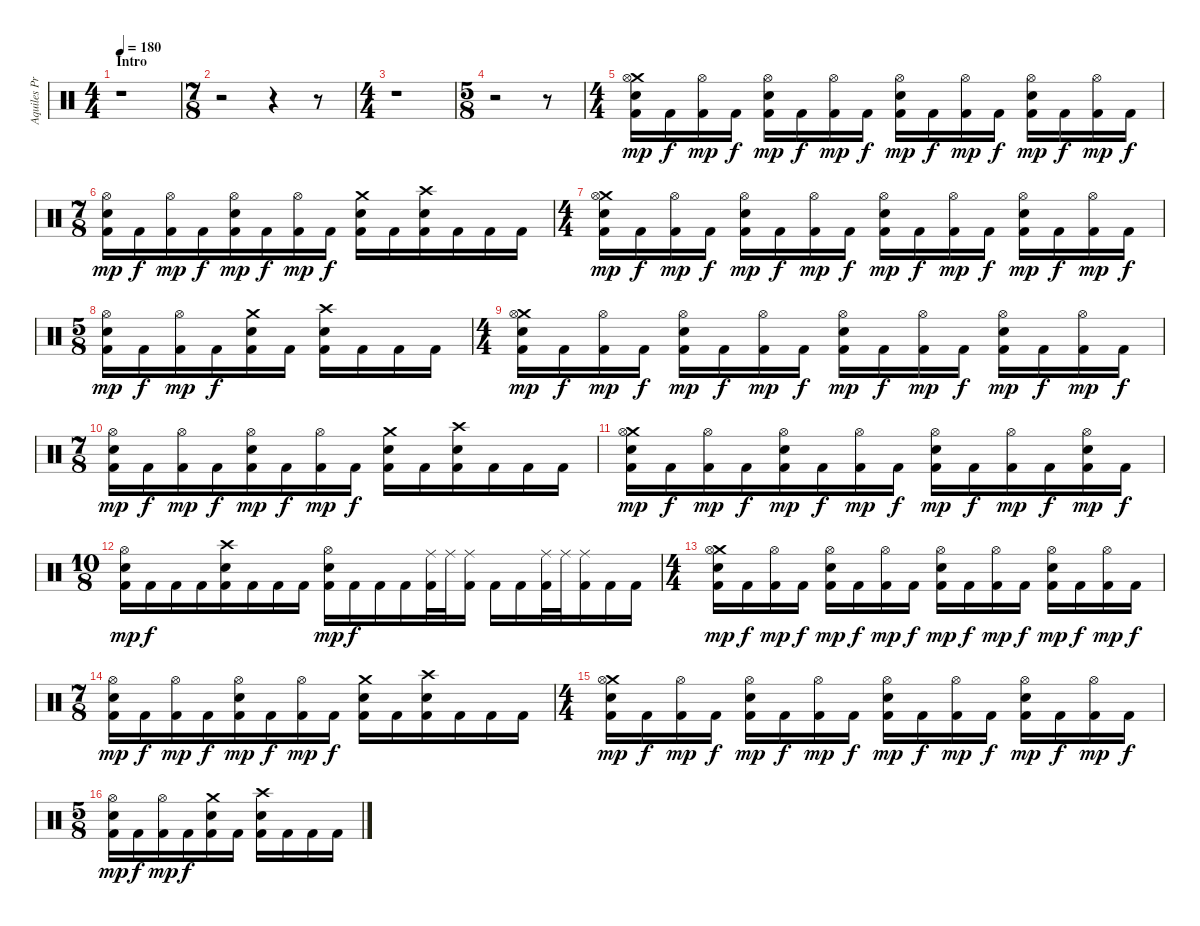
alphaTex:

\track ("Aquiles Priester" "Aquiles Pr") {instrument percussion}
\staff {score}
\articulation defaults
\ts (4 4)
\section ("" "Intro")
\tempo 180
\clef neutral
\ks c
r.1{dy mp} |
\ts (7 8)
r.2 r.4 r.8 |
\ts (4 4)
r.1 |
\ts (5 8)
r.2 r.8 |
\ts (4 4)
("Crash medium (hit)" "Hi-Hat (open)" "Snare (hit) 2" "Kick (hit) 2").16 "Kick (hit) 2".16{dy f} ("Hi-Hat (open)" "Kick (hit) 2").16{dy mp} "Kick (hit) 2".16{dy f} ("Hi-Hat (open)" "Snare (hit) 2" "Kick (hit) 2").16{dy mp} "Kick (hit) 2".16{dy f} ("Hi-Hat (open)" "Kick (hit) 2").16{dy mp} "Kick (hit) 2".16{dy f} ("Hi-Hat (open)" "Snare (hit) 2" "Kick (hit) 2").16{dy mp} "Kick (hit) 2".16{dy f} ("Hi-Hat (open)" "Kick (hit) 2").16{dy mp} "Kick (hit) 2".16{dy f} ("Hi-Hat (open)" "Snare (hit) 2" "Kick (hit) 2").16{dy mp} "Kick (hit) 2".16{dy f} ("Hi-Hat (open)" "Kick (hit) 2").16{dy mp} "Kick (hit) 2".16{dy f} |
\ts (7 8)
("Hi-Hat (open)" "Snare (hit) 2" "Kick (hit) 2").16{dy mp} "Kick (hit) 2".16{dy f} ("Hi-Hat (open)" "Kick (hit) 2").16{dy mp} "Kick (hit) 2".16{dy f} ("Hi-Hat (open)" "Snare (hit) 2" "Kick (hit) 2").16{dy mp} "Kick (hit) 2".16{dy f} ("Hi-Hat (open)" "Kick (hit) 2").16{dy mp} "Kick (hit) 2".16{dy f} ("Crash medium (hit)" "Snare (hit) 2" "Kick (hit) 2").16 "Kick (hit) 2".16 ("Crash high (hit)" "Snare (hit) 2" "Kick (hit) 2").16 "Kick (hit) 2".16 "Kick (hit) 2".16 "Kick (hit) 2".16 |
\ts (4 4)
("Crash medium (hit)" "Hi-Hat (open)" "Snare (hit) 2" "Kick (hit) 2").16{dy mp} "Kick (hit) 2".16{dy f} ("Hi-Hat (open)" "Kick (hit) 2").16{dy mp} "Kick (hit) 2".16{dy f} ("Hi-Hat (open)" "Snare (hit) 2" "Kick (hit) 2").16{dy mp} "Kick (hit) 2".16{dy f} ("Hi-Hat (open)" "Kick (hit) 2").16{dy mp} "Kick (hit) 2".16{dy f} ("Hi-Hat (open)" "Snare (hit) 2" "Kick (hit) 2").16{dy mp} "Kick (hit) 2".16{dy f} ("Hi-Hat (open)" "Kick (hit) 2").16{dy mp} "Kick (hit) 2".16{dy f} ("Hi-Hat (open)" "Snare (hit) 2" "Kick (hit) 2").16{dy mp} "Kick (hit) 2".16{dy f} ("Hi-Hat (open)" "Kick (hit) 2").16{dy mp} "Kick (hit) 2".16{dy f} |
\ts (5 8)
("Hi-Hat (open)" "Snare (hit) 2" "Kick (hit) 2").16{dy mp} "Kick (hit) 2".16{dy f} ("Hi-Hat (open)" "Kick (hit) 2").16{dy mp} "Kick (hit) 2".16{dy f} ("Crash medium (hit)" "Snare (hit) 2" "Kick (hit) 2").16 "Kick (hit) 2".16 ("Crash high (hit)" "Snare (hit) 2" "Kick (hit) 2").16 "Kick (hit) 2".16 "Kick (hit) 2".16 "Kick (hit) 2".16 |
\ts (4 4)
("Crash medium (hit)" "Hi-Hat (open)" "Snare (hit) 2" "Kick (hit) 2").16{dy mp} "Kick (hit) 2".16{dy f} ("Hi-Hat (open)" "Kick (hit) 2").16{dy mp} "Kick (hit) 2".16{dy f} ("Hi-Hat (open)" "Snare (hit) 2" "Kick (hit) 2").16{dy mp} "Kick (hit) 2".16{dy f} ("Hi-Hat (open)" "Kick (hit) 2").16{dy mp} "Kick (hit) 2".16{dy f} ("Hi-Hat (open)" "Snare (hit) 2" "Kick (hit) 2").16{dy mp} "Kick (hit) 2".16{dy f} ("Hi-Hat (open)" "Kick (hit) 2").16{dy mp} "Kick (hit) 2".16{dy f} ("Hi-Hat (open)" "Snare (hit) 2" "Kick (hit) 2").16{dy mp} "Kick (hit) 2".16{dy f} ("Hi-Hat (open)" "Kick (hit) 2").16{dy mp} "Kick (hit) 2".16{dy f} |
\ts (7 8)
("Hi-Hat (open)" "Snare (hit) 2" "Kick (hit) 2").16{dy mp} "Kick (hit) 2".16{dy f} ("Hi-Hat (open)" "Kick (hit) 2").16{dy mp} "Kick (hit) 2".16{dy f} ("Hi-Hat (open)" "Snare (hit) 2" "Kick (hit) 2").16{dy mp} "Kick (hit) 2".16{dy f} ("Hi-Hat (open)" "Kick (hit) 2").16{dy mp} "Kick (hit) 2".16{dy f} ("Crash medium (hit)" "Snare (hit) 2" "Kick (hit) 2").16 "Kick (hit) 2".16 ("Crash high (hit)" "Snare (hit) 2" "Kick (hit) 2").16 "Kick (hit) 2".16 "Kick (hit) 2".16 "Kick (hit) 2".16 |
("Crash medium (hit)" "Hi-Hat (open)" "Snare (hit) 2" "Kick (hit) 2").16{dy mp} "Kick (hit) 2".16{dy f} ("Hi-Hat (open)" "Kick (hit) 2").16{dy mp} "Kick (hit) 2".16{dy f} ("Hi-Hat (open)" "Snare (hit) 2" "Kick (hit) 2").16{dy mp} "Kick (hit) 2".16{dy f} ("Hi-Hat (open)" "Kick (hit) 2").16{dy mp} "Kick (hit) 2".16{dy f} ("Hi-Hat (open)" "Snare (hit) 2" "Kick (hit) 2").16{dy mp} "Kick (hit) 2".16{dy f} ("Hi-Hat (open)" "Kick (hit) 2").16{dy mp} "Kick (hit) 2".16{dy f} ("Hi-Hat (open)" "Snare (hit) 2" "Kick (hit) 2").16{dy mp} "Kick (hit) 2".16{dy f} |
\ts (10 8)
("Hi-Hat (open)" "Snare (hit) 2" "Kick (hit) 2").16{dy mp} "Kick (hit) 2".16{dy f} "Kick (hit) 2".16 "Kick (hit) 2".16 ("Crash high (hit)" "Snare (hit) 2" "Kick (hit) 2").16 "Kick (hit) 2".16 "Kick (hit) 2".16 "Kick (hit) 2".16 ("Hi-Hat (open)" "Snare (hit) 2" "Kick (hit) 2").16{dy mp} "Kick (hit) 2".16{dy f} "Kick (hit) 2".16 "Kick (hit) 2".16 ("Ride (middle)" "Kick (hit) 2").32 "Ride (middle)".32 ("Ride (middle)" "Kick (hit) 2").16 "Kick (hit) 2".16 "Kick (hit) 2".16 ("Ride (middle)" "Kick (hit) 2").32 "Ride (middle)".32 ("Ride (middle)" "Kick (hit) 2").16 "Kick (hit) 2".16 "Kick (hit) 2".16 |
\ts (4 4)
("Crash medium (hit)" "Hi-Hat (open)" "Snare (hit) 2" "Kick (hit) 2").16{dy mp} "Kick (hit) 2".16{dy f} ("Hi-Hat (open)" "Kick (hit) 2").16{dy mp} "Kick (hit) 2".16{dy f} ("Hi-Hat (open)" "Snare (hit) 2" "Kick (hit) 2").16{dy mp} "Kick (hit) 2".16{dy f} ("Hi-Hat (open)" "Kick (hit) 2").16{dy mp} "Kick (hit) 2".16{dy f} ("Hi-Hat (open)" "Snare (hit) 2" "Kick (hit) 2").16{dy mp} "Kick (hit) 2".16{dy f} ("Hi-Hat (open)" "Kick (hit) 2").16{dy mp} "Kick (hit) 2".16{dy f} ("Hi-Hat (open)" "Snare (hit) 2" "Kick (hit) 2").16{dy mp} "Kick (hit) 2".16{dy f} ("Hi-Hat (open)" "Kick (hit) 2").16{dy mp} "Kick (hit) 2".16{dy f} |
\ts (7 8)
("Hi-Hat (open)" "Snare (hit) 2" "Kick (hit) 2").16{dy mp} "Kick (hit) 2".16{dy f} ("Hi-Hat (open)" "Kick (hit) 2").16{dy mp} "Kick (hit) 2".16{dy f} ("Hi-Hat (open)" "Snare (hit) 2" "Kick (hit) 2").16{dy mp} "Kick (hit) 2".16{dy f} ("Hi-Hat (open)" "Kick (hit) 2").16{dy mp} "Kick (hit) 2".16{dy f} ("Crash medium (hit)" "Snare (hit) 2" "Kick (hit) 2").16 "Kick (hit) 2".16 ("Crash high (hit)" "Snare (hit) 2" "Kick (hit) 2").16 "Kick (hit) 2".16 "Kick (hit) 2".16 "Kick (hit) 2".16 |
\ts (4 4)
("Crash medium (hit)" "Hi-Hat (open)" "Snare (hit) 2" "Kick (hit) 2").16{dy mp} "Kick (hit) 2".16{dy f} ("Hi-Hat (open)" "Kick (hit) 2").16{dy mp} "Kick (hit) 2".16{dy f} ("Hi-Hat (open)" "Snare (hit) 2" "Kick (hit) 2").16{dy mp} "Kick (hit) 2".16{dy f} ("Hi-Hat (open)" "Kick (hit) 2").16{dy mp} "Kick (hit) 2".16{dy f} ("Hi-Hat (open)" "Snare (hit) 2" "Kick (hit) 2").16{dy mp} "Kick (hit) 2".16{dy f} ("Hi-Hat (open)" "Kick (hit) 2").16{dy mp} "Kick (hit) 2".16{dy f} ("Hi-Hat (open)" "Snare (hit) 2" "Kick (hit) 2").16{dy mp} "Kick (hit) 2".16{dy f} ("Hi-Hat (open)" "Kick (hit) 2").16{dy mp} "Kick (hit) 2".16{dy f} |
\ts (5 8)
("Hi-Hat (open)" "Snare (hit) 2" "Kick (hit) 2").16{dy mp} "Kick (hit) 2".16{dy f} ("Hi-Hat (open)" "Kick (hit) 2").16{dy mp} "Kick (hit) 2".16{dy f} ("Crash medium (hit)" "Snare (hit) 2" "Kick (hit) 2").16 "Kick (hit) 2".16 ("Crash high (hit)" "Snare (hit) 2" "Kick (hit) 2").16 "Kick (hit) 2".16 "Kick (hit) 2".16 "Kick (hit) 2".16
